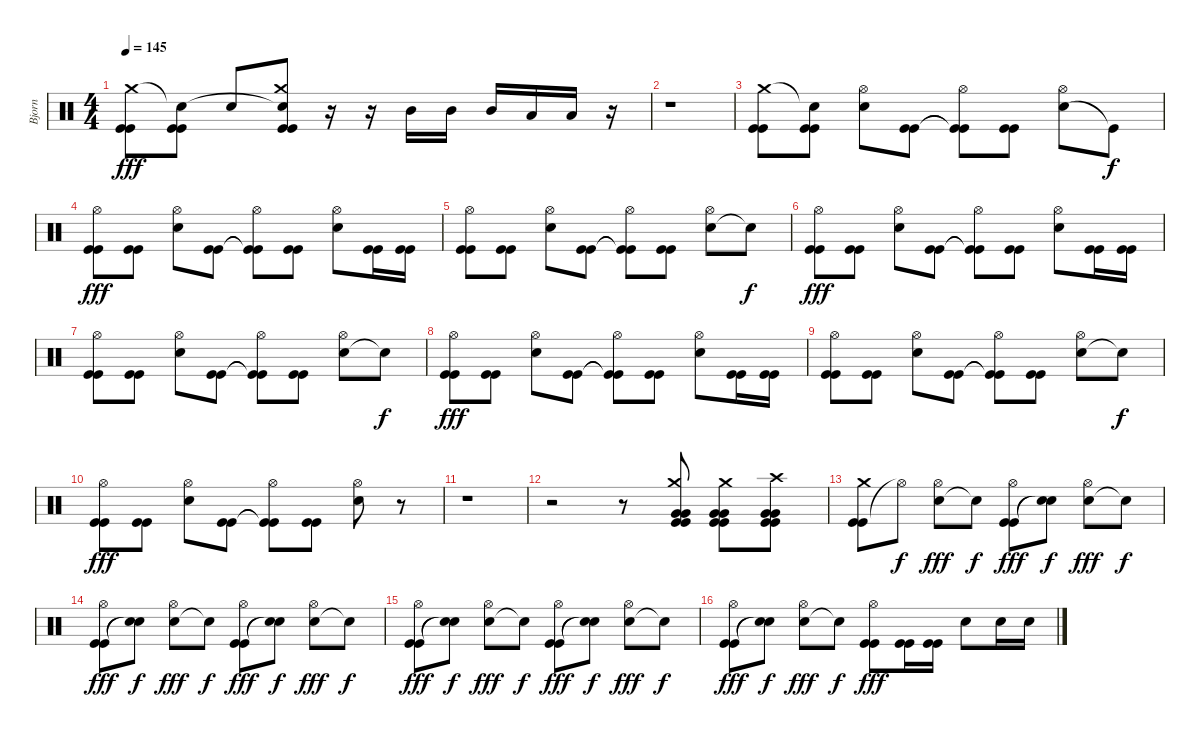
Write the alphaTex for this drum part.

\track ("Bjorn" "Bjorn") {instrument percussion}
\staff {score}
\articulation defaults
\ts (4 4)
\tempo 145
\clef neutral
\ks c
("Kick (hit)" "Kick (hit)" "Crash medium (hit)").8{dy fff} ("Kick (hit)" "Kick (hit)" "Snare (hit)"{t}).8 "Snare (hit) 2".8 ("Kick (hit)" "Kick (hit)" "Snare (hit) 2"{t} "Crash medium (hit)").8 r.16 r.16 "Mid Tom (hit)".16 "Mid Tom (hit)".16 "Mid Tom (hit)".16 "Low Tom (hit)".16 "Low Tom (hit)".16 r.16 |
r.1 |
("Kick (hit)" "Kick (hit)" "Crash medium (hit)").8 ("Kick (hit)" "Kick (hit)" "Snare (hit)"{t}).8 ("Snare (hit) 2" "Hi-Hat (open)").8 ("Kick (hit)" "Kick (hit)").8 ("Kick (hit)"{t} "Kick (hit)"{t} "Hi-Hat (open)").8 ("Kick (hit)" "Kick (hit)").8 ("Snare (hit) 2" "Hi-Hat (open)").8 "Kick (hit)"{t}.8{dy f} |
("Kick (hit)" "Kick (hit)" "Hi-Hat (open)").8{dy fff} ("Kick (hit)" "Kick (hit)").8 ("Snare (hit) 2" "Hi-Hat (open)").8 ("Kick (hit)" "Kick (hit)").8 ("Kick (hit)"{t} "Kick (hit)"{t} "Hi-Hat (open)").8 ("Kick (hit)" "Kick (hit)").8 ("Snare (hit) 2" "Hi-Hat (open)").8 ("Kick (hit)" "Kick (hit)").16 ("Kick (hit)" "Kick (hit)").16 |
("Kick (hit)" "Kick (hit)" "Hi-Hat (open)").8 ("Kick (hit)" "Kick (hit)").8 ("Snare (hit) 2" "Hi-Hat (open)").8 ("Kick (hit)" "Kick (hit)").8 ("Kick (hit)"{t} "Kick (hit)"{t} "Hi-Hat (open)").8 ("Kick (hit)" "Kick (hit)").8 ("Snare (hit) 2" "Hi-Hat (open)").8 "Snare (hit)"{t}.8{dy f} |
("Kick (hit)" "Kick (hit)" "Hi-Hat (open)").8{dy fff} ("Kick (hit)" "Kick (hit)").8 ("Snare (hit) 2" "Hi-Hat (open)").8 ("Kick (hit)" "Kick (hit)").8 ("Kick (hit)"{t} "Kick (hit)"{t} "Hi-Hat (open)").8 ("Kick (hit)" "Kick (hit)").8 ("Snare (hit) 2" "Hi-Hat (open)").8 ("Kick (hit)" "Kick (hit)").16 ("Kick (hit)" "Kick (hit)").16 |
("Kick (hit)" "Kick (hit)" "Hi-Hat (open)").8 ("Kick (hit)" "Kick (hit)").8 ("Snare (hit) 2" "Hi-Hat (open)").8 ("Kick (hit)" "Kick (hit)").8 ("Kick (hit)"{t} "Kick (hit)"{t} "Hi-Hat (open)").8 ("Kick (hit)" "Kick (hit)").8 ("Snare (hit) 2" "Hi-Hat (open)").8 "Snare (hit)"{t}.8{dy f} |
("Kick (hit)" "Kick (hit)" "Hi-Hat (open)").8{dy fff} ("Kick (hit)" "Kick (hit)").8 ("Snare (hit) 2" "Hi-Hat (open)").8 ("Kick (hit)" "Kick (hit)").8 ("Kick (hit)"{t} "Kick (hit)"{t} "Hi-Hat (open)").8 ("Kick (hit)" "Kick (hit)").8 ("Snare (hit) 2" "Hi-Hat (open)").8 ("Kick (hit)" "Kick (hit)").16 ("Kick (hit)" "Kick (hit)").16 |
("Kick (hit)" "Kick (hit)" "Hi-Hat (open)").8 ("Kick (hit)" "Kick (hit)").8 ("Snare (hit) 2" "Hi-Hat (open)").8 ("Kick (hit)" "Kick (hit)").8 ("Kick (hit)"{t} "Kick (hit)"{t} "Hi-Hat (open)").8 ("Kick (hit)" "Kick (hit)").8 ("Snare (hit) 2" "Hi-Hat (open)").8 "Snare (hit)"{t}.8{dy f} |
("Kick (hit)" "Kick (hit)" "Hi-Hat (open)").8{dy fff} ("Kick (hit)" "Kick (hit)").8 ("Snare (hit) 2" "Hi-Hat (open)").8 ("Kick (hit)" "Kick (hit)").8 ("Kick (hit)"{t} "Kick (hit)"{t} "Hi-Hat (open)").8 ("Kick (hit)" "Kick (hit)").8 ("Snare (hit) 2" "Hi-Hat (open)").8 r.8 |
r.1 |
r.2 r.8 ("Kick (hit)" "Kick (hit)" "Very Low Tom (hit)" "Very Low Tom (hit)" "Crash medium (hit)").8 ("Kick (hit)" "Kick (hit)" "Very Low Tom (hit)" "Very Low Tom (hit)" "Crash medium (hit)").8 ("Kick (hit)" "Kick (hit)" "Very Low Tom (hit)" "Very Low Tom (hit)" "Crash high (hit)").8 |
("Kick (hit)" "Kick (hit)" "Crash medium (hit)").8 "Hi-Hat (open)"{t}.8{dy f} ("Snare (hit) 2" "Hi-Hat (open)").8{dy fff} "Snare (hit)"{t}.8{dy f} ("Kick (hit)" "Kick (hit)" "Hi-Hat (open)").8{dy fff} ("Snare (hit)"{t} "Snare (hit)"{t}).8{dy f} ("Snare (hit) 2" "Hi-Hat (open)").8{dy fff} "Snare (hit)"{t}.8{dy f} |
("Kick (hit)" "Kick (hit)" "Hi-Hat (open)").8{dy fff} ("Snare (hit)"{t} "Snare (hit)"{t}).8{dy f} ("Snare (hit) 2" "Hi-Hat (open)").8{dy fff} "Snare (hit)"{t}.8{dy f} ("Kick (hit)" "Kick (hit)" "Hi-Hat (open)").8{dy fff} ("Snare (hit)"{t} "Snare (hit)"{t}).8{dy f} ("Snare (hit) 2" "Hi-Hat (open)").8{dy fff} "Snare (hit)"{t}.8{dy f} |
("Kick (hit)" "Kick (hit)" "Hi-Hat (open)").8{dy fff} ("Snare (hit)"{t} "Snare (hit)"{t}).8{dy f} ("Snare (hit) 2" "Hi-Hat (open)").8{dy fff} "Snare (hit)"{t}.8{dy f} ("Kick (hit)" "Kick (hit)" "Hi-Hat (open)").8{dy fff} ("Snare (hit)"{t} "Snare (hit)"{t}).8{dy f} ("Snare (hit) 2" "Hi-Hat (open)").8{dy fff} "Snare (hit)"{t}.8{dy f} |
("Kick (hit)" "Kick (hit)" "Hi-Hat (open)").8{dy fff} ("Snare (hit)"{t} "Snare (hit)"{t}).8{dy f} ("Snare (hit) 2" "Hi-Hat (open)").8{dy fff} "Snare (hit)"{t}.8{dy f} ("Kick (hit)" "Kick (hit)" "Hi-Hat (open)").8{dy fff} ("Kick (hit)" "Kick (hit)").16 ("Kick (hit)" "Kick (hit)").16 "Snare (hit) 2".8 "Snare (hit) 2".16 "Snare (hit) 2".16
